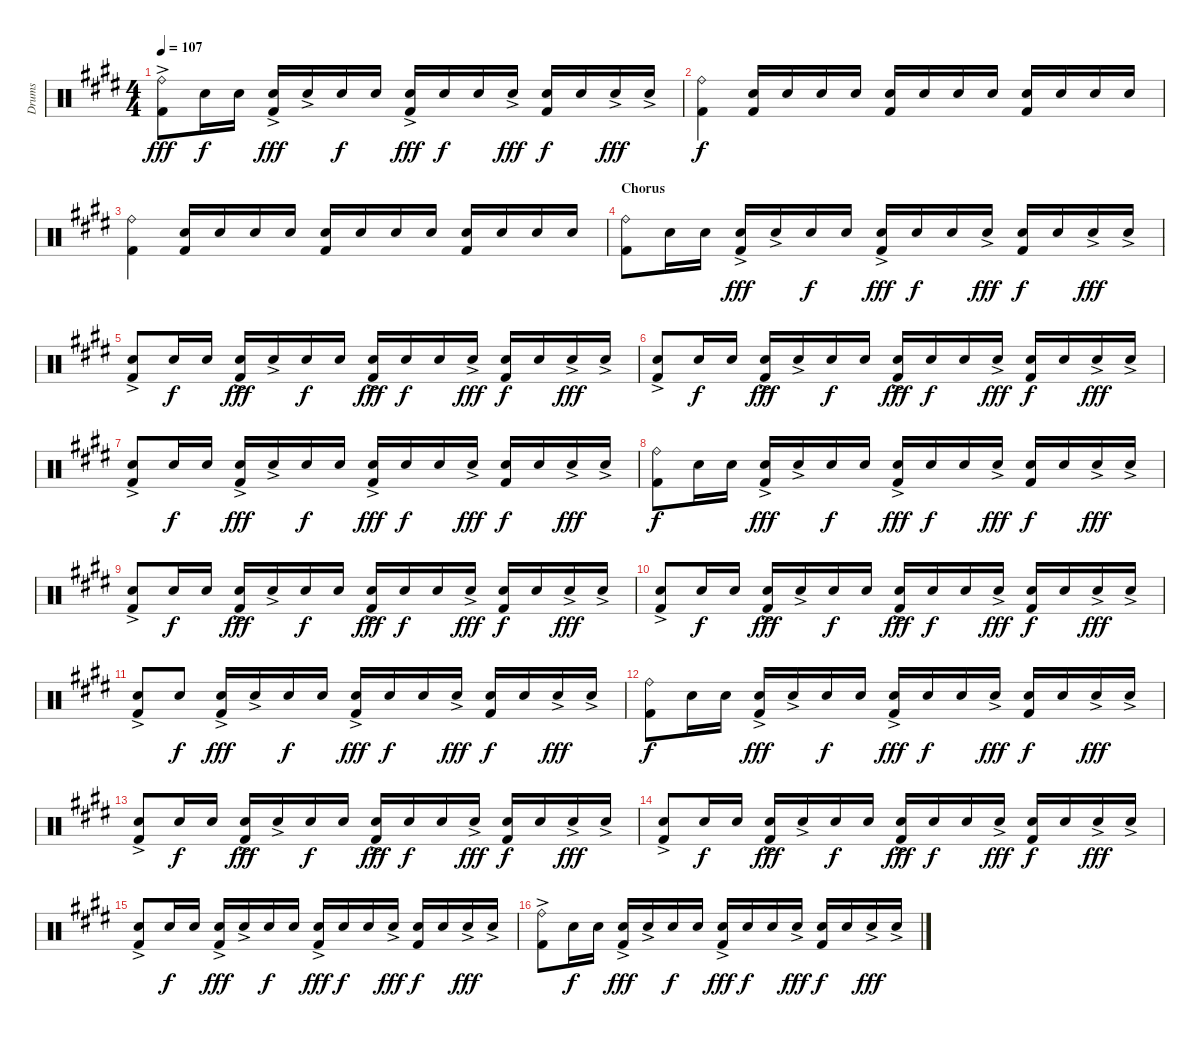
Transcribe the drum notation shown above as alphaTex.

\track ("Drums" "Drums") {instrument percussion}
\staff {score}
\articulation defaults
\ts (4 4)
\tempo 107
\clef neutral
\ks c#minor
("Ride (bell)"{ac} "Kick (hit) 2").8{dy fff} "Electric Snare (hit)".16{dy f} "Electric Snare (hit)".16 ("Electric Snare (hit)"{ac} "Kick (hit) 2").16{dy fff} "Electric Snare (hit)"{ac}.16 "Electric Snare (hit)".16{dy f} "Electric Snare (hit)".16 ("Electric Snare (hit)"{ac} "Kick (hit) 2").16{dy fff} "Electric Snare (hit)".16{dy f} "Electric Snare (hit)".16 "Electric Snare (hit)"{ac}.16{dy fff} ("Electric Snare (hit)" "Kick (hit) 2").16{dy f} "Electric Snare (hit)".16 "Electric Snare (hit)"{ac}.16{dy fff} "Electric Snare (hit)"{ac}.16 |
("Ride (bell)" "Kick (hit) 2").4{dy f} ("Electric Snare (hit)" "Kick (hit) 2").16 "Electric Snare (hit)".16 "Electric Snare (hit)".16 "Electric Snare (hit)".16 ("Electric Snare (hit)" "Kick (hit) 2").16 "Electric Snare (hit)".16 "Electric Snare (hit)".16 "Electric Snare (hit)".16 ("Electric Snare (hit)" "Kick (hit) 2").16 "Electric Snare (hit)".16 "Electric Snare (hit)".16 "Electric Snare (hit)".16 |
("Ride (bell)" "Kick (hit) 2").4 ("Electric Snare (hit)" "Kick (hit) 2").16 "Electric Snare (hit)".16 "Electric Snare (hit)".16 "Electric Snare (hit)".16 ("Electric Snare (hit)" "Kick (hit) 2").16 "Electric Snare (hit)".16 "Electric Snare (hit)".16 "Electric Snare (hit)".16 ("Electric Snare (hit)" "Kick (hit) 2").16 "Electric Snare (hit)".16 "Electric Snare (hit)".16 "Electric Snare (hit)".16 |
\section ("" "Chorus")
("Ride (bell)" "Kick (hit) 2").8 "Electric Snare (hit)".16 "Electric Snare (hit)".16 ("Electric Snare (hit)"{ac} "Kick (hit) 2").16{dy fff} "Electric Snare (hit)"{ac}.16 "Electric Snare (hit)".16{dy f} "Electric Snare (hit)".16 ("Electric Snare (hit)"{ac} "Kick (hit) 2").16{dy fff} "Electric Snare (hit)".16{dy f} "Electric Snare (hit)".16 "Electric Snare (hit)"{ac}.16{dy fff} ("Electric Snare (hit)" "Kick (hit) 2").16{dy f} "Electric Snare (hit)".16 "Electric Snare (hit)"{ac}.16{dy fff} "Electric Snare (hit)"{ac}.16 |
("Electric Snare (hit)"{ac} "Kick (hit) 2").8 "Electric Snare (hit)".16{dy f} "Electric Snare (hit)".16 ("Electric Snare (hit)"{ac} "Kick (hit) 2").16{dy fff} "Electric Snare (hit)"{ac}.16 "Electric Snare (hit)".16{dy f} "Electric Snare (hit)".16 ("Electric Snare (hit)"{ac} "Kick (hit) 2").16{dy fff} "Electric Snare (hit)".16{dy f} "Electric Snare (hit)".16 "Electric Snare (hit)"{ac}.16{dy fff} ("Electric Snare (hit)" "Kick (hit) 2").16{dy f} "Electric Snare (hit)".16 "Electric Snare (hit)"{ac}.16{dy fff} "Electric Snare (hit)"{ac}.16 |
("Electric Snare (hit)"{ac} "Kick (hit) 2").8 "Electric Snare (hit)".16{dy f} "Electric Snare (hit)".16 ("Electric Snare (hit)"{ac} "Kick (hit) 2").16{dy fff} "Electric Snare (hit)"{ac}.16 "Electric Snare (hit)".16{dy f} "Electric Snare (hit)".16 ("Electric Snare (hit)"{ac} "Kick (hit) 2").16{dy fff} "Electric Snare (hit)".16{dy f} "Electric Snare (hit)".16 "Electric Snare (hit)"{ac}.16{dy fff} ("Electric Snare (hit)" "Kick (hit) 2").16{dy f} "Electric Snare (hit)".16 "Electric Snare (hit)"{ac}.16{dy fff} "Electric Snare (hit)"{ac}.16 |
("Electric Snare (hit)"{ac} "Kick (hit) 2").8 "Electric Snare (hit)".16{dy f} "Electric Snare (hit)".16 ("Electric Snare (hit)"{ac} "Kick (hit) 2").16{dy fff} "Electric Snare (hit)"{ac}.16 "Electric Snare (hit)".16{dy f} "Electric Snare (hit)".16 ("Electric Snare (hit)"{ac} "Kick (hit) 2").16{dy fff} "Electric Snare (hit)".16{dy f} "Electric Snare (hit)".16 "Electric Snare (hit)"{ac}.16{dy fff} ("Electric Snare (hit)" "Kick (hit) 2").16{dy f} "Electric Snare (hit)".16 "Electric Snare (hit)"{ac}.16{dy fff} "Electric Snare (hit)"{ac}.16 |
("Ride (bell)" "Kick (hit) 2").8{dy f} "Electric Snare (hit)".16 "Electric Snare (hit)".16 ("Electric Snare (hit)"{ac} "Kick (hit) 2").16{dy fff} "Electric Snare (hit)"{ac}.16 "Electric Snare (hit)".16{dy f} "Electric Snare (hit)".16 ("Electric Snare (hit)"{ac} "Kick (hit) 2").16{dy fff} "Electric Snare (hit)".16{dy f} "Electric Snare (hit)".16 "Electric Snare (hit)"{ac}.16{dy fff} ("Electric Snare (hit)" "Kick (hit) 2").16{dy f} "Electric Snare (hit)".16 "Electric Snare (hit)"{ac}.16{dy fff} "Electric Snare (hit)"{ac}.16 |
("Electric Snare (hit)"{ac} "Kick (hit) 2").8 "Electric Snare (hit)".16{dy f} "Electric Snare (hit)".16 ("Electric Snare (hit)"{ac} "Kick (hit) 2").16{dy fff} "Electric Snare (hit)"{ac}.16 "Electric Snare (hit)".16{dy f} "Electric Snare (hit)".16 ("Electric Snare (hit)"{ac} "Kick (hit) 2").16{dy fff} "Electric Snare (hit)".16{dy f} "Electric Snare (hit)".16 "Electric Snare (hit)"{ac}.16{dy fff} ("Electric Snare (hit)" "Kick (hit) 2").16{dy f} "Electric Snare (hit)".16 "Electric Snare (hit)"{ac}.16{dy fff} "Electric Snare (hit)"{ac}.16 |
("Electric Snare (hit)"{ac} "Kick (hit) 2").8 "Electric Snare (hit)".16{dy f} "Electric Snare (hit)".16 ("Electric Snare (hit)"{ac} "Kick (hit) 2").16{dy fff} "Electric Snare (hit)"{ac}.16 "Electric Snare (hit)".16{dy f} "Electric Snare (hit)".16 ("Electric Snare (hit)"{ac} "Kick (hit) 2").16{dy fff} "Electric Snare (hit)".16{dy f} "Electric Snare (hit)".16 "Electric Snare (hit)"{ac}.16{dy fff} ("Electric Snare (hit)" "Kick (hit) 2").16{dy f} "Electric Snare (hit)".16 "Electric Snare (hit)"{ac}.16{dy fff} "Electric Snare (hit)"{ac}.16 |
("Electric Snare (hit)"{ac} "Kick (hit) 2").8 "Electric Snare (hit)".8{dy f} ("Electric Snare (hit)"{ac} "Kick (hit) 2").16{dy fff} "Electric Snare (hit)"{ac}.16 "Electric Snare (hit)".16{dy f} "Electric Snare (hit)".16 ("Electric Snare (hit)"{ac} "Kick (hit) 2").16{dy fff} "Electric Snare (hit)".16{dy f} "Electric Snare (hit)".16 "Electric Snare (hit)"{ac}.16{dy fff} ("Electric Snare (hit)" "Kick (hit) 2").16{dy f} "Electric Snare (hit)".16 "Electric Snare (hit)"{ac}.16{dy fff} "Electric Snare (hit)"{ac}.16 |
("Ride (bell)" "Kick (hit) 2").8{dy f} "Electric Snare (hit)".16 "Electric Snare (hit)".16 ("Electric Snare (hit)"{ac} "Kick (hit) 2").16{dy fff} "Electric Snare (hit)"{ac}.16 "Electric Snare (hit)".16{dy f} "Electric Snare (hit)".16 ("Electric Snare (hit)"{ac} "Kick (hit) 2").16{dy fff} "Electric Snare (hit)".16{dy f} "Electric Snare (hit)".16 "Electric Snare (hit)"{ac}.16{dy fff} ("Electric Snare (hit)" "Kick (hit) 2").16{dy f} "Electric Snare (hit)".16 "Electric Snare (hit)"{ac}.16{dy fff} "Electric Snare (hit)"{ac}.16 |
("Electric Snare (hit)"{ac} "Kick (hit) 2").8 "Electric Snare (hit)".16{dy f} "Electric Snare (hit)".16 ("Electric Snare (hit)"{ac} "Kick (hit) 2").16{dy fff} "Electric Snare (hit)"{ac}.16 "Electric Snare (hit)".16{dy f} "Electric Snare (hit)".16 ("Electric Snare (hit)"{ac} "Kick (hit) 2").16{dy fff} "Electric Snare (hit)".16{dy f} "Electric Snare (hit)".16 "Electric Snare (hit)"{ac}.16{dy fff} ("Electric Snare (hit)" "Kick (hit) 2").16{dy f} "Electric Snare (hit)".16 "Electric Snare (hit)"{ac}.16{dy fff} "Electric Snare (hit)"{ac}.16 |
("Electric Snare (hit)"{ac} "Kick (hit) 2").8 "Electric Snare (hit)".16{dy f} "Electric Snare (hit)".16 ("Electric Snare (hit)"{ac} "Kick (hit) 2").16{dy fff} "Electric Snare (hit)"{ac}.16 "Electric Snare (hit)".16{dy f} "Electric Snare (hit)".16 ("Electric Snare (hit)"{ac} "Kick (hit) 2").16{dy fff} "Electric Snare (hit)".16{dy f} "Electric Snare (hit)".16 "Electric Snare (hit)"{ac}.16{dy fff} ("Electric Snare (hit)" "Kick (hit) 2").16{dy f} "Electric Snare (hit)".16 "Electric Snare (hit)"{ac}.16{dy fff} "Electric Snare (hit)"{ac}.16 |
("Electric Snare (hit)"{ac} "Kick (hit) 2").8 "Electric Snare (hit)".16{dy f} "Electric Snare (hit)".16 ("Electric Snare (hit)"{ac} "Kick (hit) 2").16{dy fff} "Electric Snare (hit)"{ac}.16 "Electric Snare (hit)".16{dy f} "Electric Snare (hit)".16 ("Electric Snare (hit)"{ac} "Kick (hit) 2").16{dy fff} "Electric Snare (hit)".16{dy f} "Electric Snare (hit)".16 "Electric Snare (hit)"{ac}.16{dy fff} ("Electric Snare (hit)" "Kick (hit) 2").16{dy f} "Electric Snare (hit)".16 "Electric Snare (hit)"{ac}.16{dy fff} "Electric Snare (hit)"{ac}.16 |
("Ride (bell)"{ac} "Kick (hit) 2").8 "Electric Snare (hit)".16{dy f} "Electric Snare (hit)".16 ("Electric Snare (hit)"{ac} "Kick (hit) 2").16{dy fff} "Electric Snare (hit)"{ac}.16 "Electric Snare (hit)".16{dy f} "Electric Snare (hit)".16 ("Electric Snare (hit)"{ac} "Kick (hit) 2").16{dy fff} "Electric Snare (hit)".16{dy f} "Electric Snare (hit)".16 "Electric Snare (hit)"{ac}.16{dy fff} ("Electric Snare (hit)" "Kick (hit) 2").16{dy f} "Electric Snare (hit)".16 "Electric Snare (hit)"{ac}.16{dy fff} "Electric Snare (hit)"{ac}.16
